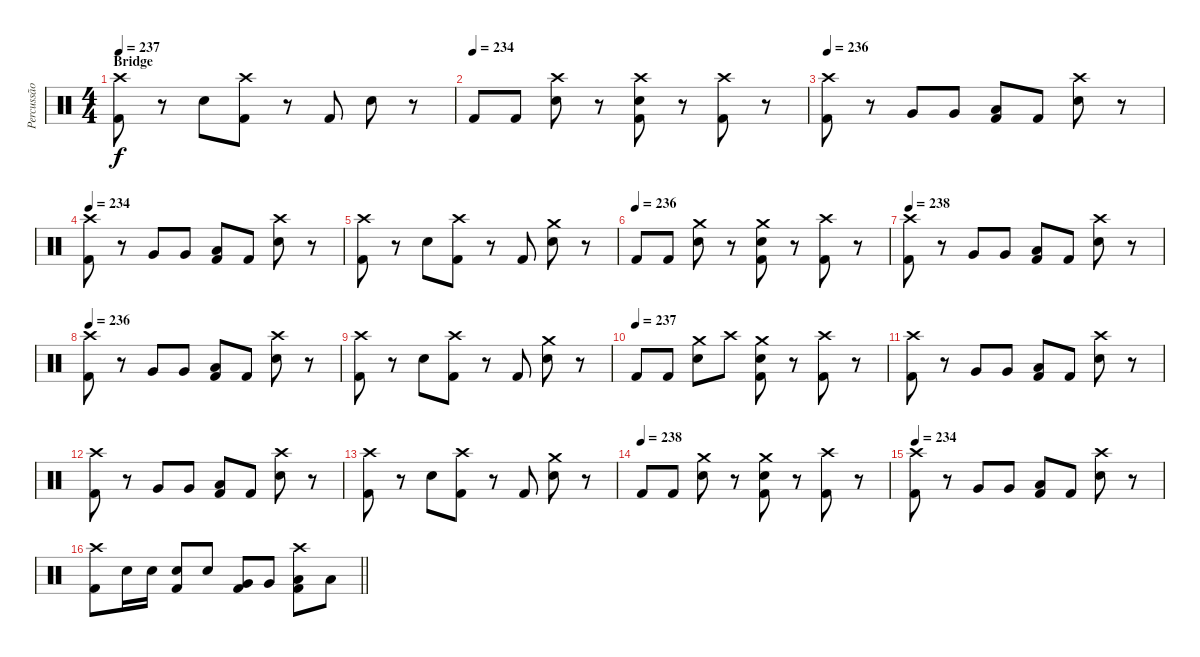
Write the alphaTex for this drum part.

\track ("Percussão" "Percussão") {instrument percussion}
\staff {score}
\articulation defaults
\ts (4 4)
\section ("" "Bridge")
\tempo 237
\clef neutral
\ks c
("Crash high (hit)" "Kick (hit) 2").8{dy f} r.8 "Electric Snare (hit)".8 ("Crash high (hit)" "Kick (hit) 2").8 r.8 "Kick (hit) 2".8 "Electric Snare (hit)".8 r.8 |
\tempo (234)
"Kick (hit) 2".8 "Kick (hit) 2".8 ("Crash high (hit)" "Electric Snare (hit)").8 r.8 ("Crash high (hit)" "Electric Snare (hit)" "Kick (hit) 2").8 r.8 ("Crash high (hit)" "Kick (hit) 2").8 r.8 |
\tempo 236
("Crash high (hit)" "Kick (hit) 2").8 r.8 "Very Low Tom (hit)".8 "Very Low Tom (hit)".8 ("Low Tom (hit)" "Kick (hit) 2").8 "Kick (hit) 2".8 ("Crash high (hit)" "Electric Snare (hit)").8 r.8 |
\tempo 234
("Crash high (hit)" "Kick (hit) 2").8 r.8 "Very Low Tom (hit)".8 "Very Low Tom (hit)".8 ("Low Tom (hit)" "Kick (hit) 2").8 "Kick (hit) 2".8 ("Crash high (hit)" "Electric Snare (hit)").8 r.8 |
("Crash high (hit)" "Kick (hit) 2").8 r.8 "Electric Snare (hit)".8 ("Crash high (hit)" "Kick (hit) 2").8 r.8 "Kick (hit) 2".8 ("Crash medium (hit)" "Electric Snare (hit)").8 r.8 |
\tempo (236)
"Kick (hit) 2".8 "Kick (hit) 2".8 ("Crash medium (hit)" "Electric Snare (hit)").8 r.8 ("Crash medium (hit)" "Electric Snare (hit)" "Kick (hit) 2").8 r.8 ("Crash high (hit)" "Kick (hit) 2").8 r.8 |
\tempo 238
("Crash high (hit)" "Kick (hit) 2").8 r.8 "Very Low Tom (hit)".8 "Very Low Tom (hit)".8 ("Low Tom (hit)" "Kick (hit) 2").8 "Kick (hit) 2".8 ("Crash high (hit)" "Electric Snare (hit)").8 r.8 |
\tempo 236
("Crash high (hit)" "Kick (hit) 2").8 r.8 "Very Low Tom (hit)".8 "Very Low Tom (hit)".8 ("Low Tom (hit)" "Kick (hit) 2").8 "Kick (hit) 2".8 ("Crash high (hit)" "Electric Snare (hit)").8 r.8 |
("Crash high (hit)" "Kick (hit) 2").8 r.8 "Electric Snare (hit)".8 ("Crash high (hit)" "Kick (hit) 2").8 r.8 "Kick (hit) 2".8 ("Crash medium (hit)" "Electric Snare (hit)").8 r.8 |
\tempo (237)
"Kick (hit) 2".8 "Kick (hit) 2".8 ("Crash medium (hit)" "Electric Snare (hit)").8 "Crash high (hit)".8 ("Crash medium (hit)" "Electric Snare (hit)" "Kick (hit) 2").8 r.8 ("Crash high (hit)" "Kick (hit) 2").8 r.8 |
("Crash high (hit)" "Kick (hit) 2").8 r.8 "Very Low Tom (hit)".8 "Very Low Tom (hit)".8 ("Low Tom (hit)" "Kick (hit) 2").8 "Kick (hit) 2".8 ("Crash high (hit)" "Electric Snare (hit)").8 r.8 |
("Crash high (hit)" "Kick (hit) 2").8 r.8 "Very Low Tom (hit)".8 "Very Low Tom (hit)".8 ("Low Tom (hit)" "Kick (hit) 2").8 "Kick (hit) 2".8 ("Crash high (hit)" "Electric Snare (hit)").8 r.8 |
("Crash high (hit)" "Kick (hit) 2").8 r.8 "Electric Snare (hit)".8 ("Crash high (hit)" "Kick (hit) 2").8 r.8 "Kick (hit) 2".8 ("Crash medium (hit)" "Electric Snare (hit)").8 r.8 |
\tempo (238)
"Kick (hit) 2".8 "Kick (hit) 2".8 ("Crash medium (hit)" "Electric Snare (hit)").8 r.8 ("Crash medium (hit)" "Electric Snare (hit)" "Kick (hit) 2").8 r.8 ("Crash high (hit)" "Kick (hit) 2").8 r.8 |
\tempo 234
("Crash high (hit)" "Kick (hit) 2").8 r.8 "Very Low Tom (hit)".8 "Very Low Tom (hit)".8 ("Low Tom (hit)" "Kick (hit) 2").8 "Kick (hit) 2".8 ("Crash high (hit)" "Electric Snare (hit)").8 r.8 |
\barLineRight lightlight
("Crash high (hit)" "Kick (hit) 2").8 "Electric Snare (hit)".16 "Electric Snare (hit)".16 ("Electric Snare (hit)" "Kick (hit) 2").8 "Electric Snare (hit)".8 ("Very Low Tom (hit)" "Kick (hit) 2").8 "Very Low Tom (hit)".8 ("Crash high (hit)" "Low Tom (hit)" "Kick (hit) 2").8 "Low Tom (hit)".8
